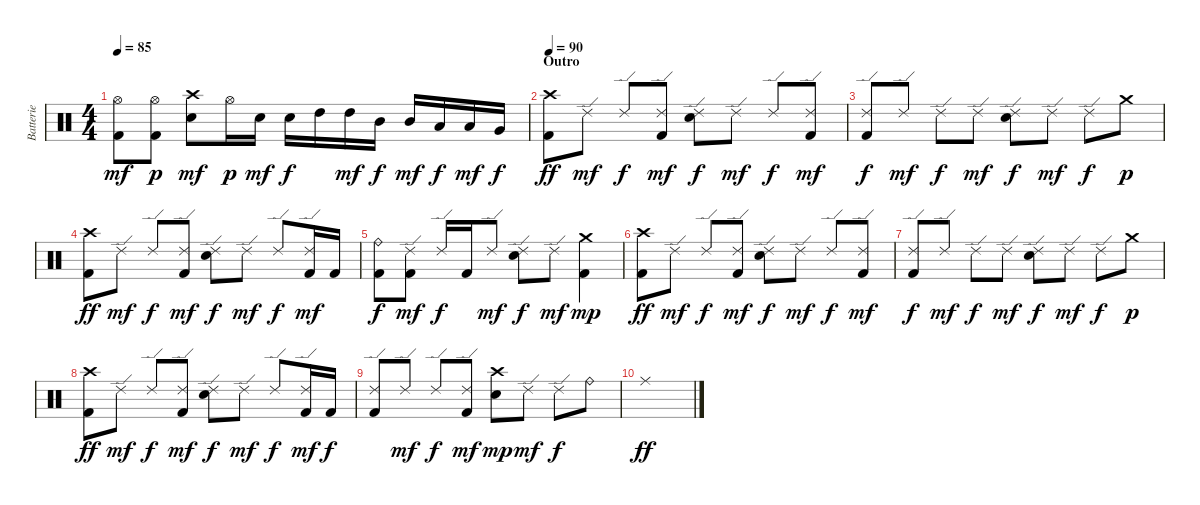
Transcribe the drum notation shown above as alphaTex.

\track ("Batterie" "Batterie") {instrument percussion}
\staff {score}
\articulation defaults
\ts (4 4)
\tempo 85
\clef neutral
\ks c
("Hi-Hat (open)" "Kick (hit) 2").8{dy mf} ("Hi-Hat (open)" "Kick (hit) 2").8{dy p} ("Crash high (hit)" "Electric Snare (hit)").8{dy mf} "Hi-Hat (open)".16{dy p} "Electric Snare (hit)".16{dy mf} "Electric Snare (hit)".16{dy f} "High Tom (hit)".16 "High Tom (hit)".16{dy mf} "Mid Tom (hit)".16{dy f} "Mid Tom (hit)".16{dy mf} "Low Tom (hit)".16{dy f} "Low Tom (hit)".16{dy mf} "Very Low Tom (hit)".16{dy f} |
\section ("" "Outro")
\tempo 90
("Crash high (hit)" "Kick (hit) 2").8{dy ff} "Ride (edge) 2".8{dy mf} "Ride (edge) 2".8{dy f} ("Ride (edge) 2" "Kick (hit) 2").8{dy mf} ("Ride (edge) 2" "Electric Snare (hit)").8{dy f} "Ride (edge) 2".8{dy mf} "Ride (edge) 2".8{dy f} ("Ride (edge) 2" "Kick (hit) 2").8{dy mf} |
("Ride (edge) 2" "Kick (hit) 2").8{dy f} "Ride (edge) 2".8{dy mf} "Ride (edge) 2".8{dy f} "Ride (edge) 2".8{dy mf} ("Ride (edge) 2" "Electric Snare (hit)").8{dy f} "Ride (edge) 2".8{dy mf} "Ride (edge) 2".8{dy f} "Crash medium (hit)".8{dy p} |
("Crash high (hit)" "Kick (hit) 2").8{dy ff} "Ride (edge) 2".8{dy mf} "Ride (edge) 2".8{dy f} ("Ride (edge) 2" "Kick (hit) 2").8{dy mf} ("Ride (edge) 2" "Electric Snare (hit)").8{dy f} "Ride (edge) 2".8{dy mf} "Ride (edge) 2".8{dy f} ("Ride (edge) 2" "Kick (hit) 2").16{dy mf} "Kick (hit) 2".16 |
("Ride (bell)" "Kick (hit) 2").8{dy f} ("Ride (edge) 2" "Kick (hit) 2").8{dy mf} "Ride (edge) 2".16{dy f} "Kick (hit) 2".16 "Ride (edge) 2".8{dy mf} ("Ride (edge) 2" "Electric Snare (hit)").8{dy f} "Ride (edge) 2".8{dy mf} ("Crash medium (hit)" "Kick (hit) 2").4{dy mp} |
("Crash high (hit)" "Kick (hit) 2").8{dy ff} "Ride (edge) 2".8{dy mf} "Ride (edge) 2".8{dy f} ("Ride (edge) 2" "Kick (hit) 2").8{dy mf} ("Ride (edge) 2" "Electric Snare (hit)").8{dy f} "Ride (edge) 2".8{dy mf} "Ride (edge) 2".8{dy f} ("Ride (edge) 2" "Kick (hit) 2").8{dy mf} |
("Ride (edge) 2" "Kick (hit) 2").8{dy f} "Ride (edge) 2".8{dy mf} "Ride (edge) 2".8{dy f} "Ride (edge) 2".8{dy mf} ("Ride (edge) 2" "Electric Snare (hit)").8{dy f} "Ride (edge) 2".8{dy mf} "Ride (edge) 2".8{dy f} "Crash medium (hit)".8{dy p} |
("Crash high (hit)" "Kick (hit) 2").8{dy ff} "Ride (edge) 2".8{dy mf} "Ride (edge) 2".8{dy f} ("Ride (edge) 2" "Kick (hit) 2").8{dy mf} ("Ride (edge) 2" "Electric Snare (hit)").8{dy f} "Ride (edge) 2".8{dy mf} "Ride (edge) 2".8{dy f} ("Ride (edge) 2" "Kick (hit) 2").16{dy mf} "Kick (hit) 2".16{dy f} |
("Ride (edge) 2" "Kick (hit) 2").8 "Ride (edge) 2".8{dy mf} "Ride (edge) 2".8{dy f} ("Ride (edge) 2" "Kick (hit) 2").8{dy mf} ("Crash high (hit)" "Electric Snare (hit)").8{dy mp} "Ride (edge) 2".8{dy mf} "Ride (edge) 2".8{dy f} "Ride (bell)".8 |
"Ride (middle)".1{dy ff}
